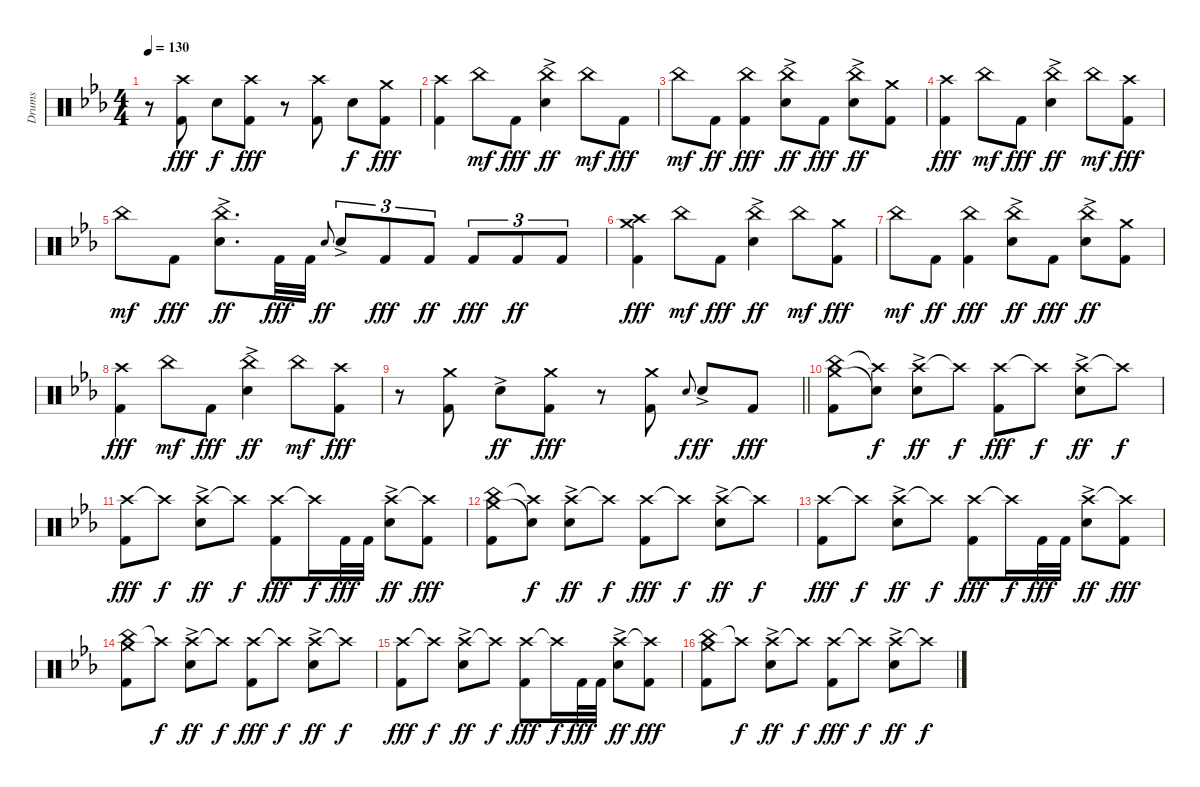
\track ("Drums" "Drums") {instrument percussion}
\staff {score}
\articulation defaults
\ts (4 4)
\tempo 130
\clef neutral
\ks cminor
r.8{dy fff} ("Crash high (hit)" "Kick (hit) 2").8 "Electric Snare (hit)".8{dy f} ("Crash high (hit)" "Kick (hit) 2").8{dy fff} r.8 ("Crash high (hit)" "Kick (hit) 2").8 "Electric Snare (hit)".8{dy f} ("Crash medium (hit)" "Kick (hit) 2").8{dy fff} |
("Crash high (hit)" "Kick (hit) 2").4 "China (hit)".8{dy mf} "Kick (hit) 2".8{dy fff} ("China (hit)" "Electric Snare (hit)"{ac}).4{dy ff} "China (hit)".8{dy mf} "Kick (hit) 2".8{dy fff} |
"China (hit)".8{dy mf} "Kick (hit) 2".8{dy ff} ("China (hit)" "Kick (hit) 2").4{dy fff} ("China (hit)" "Electric Snare (hit)"{ac}).8{dy ff} "Kick (hit) 2".8{dy fff} ("China (hit)" "Electric Snare (hit)"{ac}).8{dy ff} ("Crash medium (hit)" "Kick (hit) 2").8 |
("Crash high (hit)" "Kick (hit) 2").4{dy fff} "China (hit)".8{dy mf} "Kick (hit) 2".8{dy fff} ("China (hit)" "Electric Snare (hit)"{ac}).4{dy ff} "China (hit)".8{dy mf} ("Crash high (hit)" "Kick (hit) 2").8{dy fff} |
"China (hit)".8{dy mf} "Kick (hit) 2".8{dy fff} ("China (hit)" "Electric Snare (hit)"{ac}).8{d dy ff} "Kick (hit) 2".32{dy fff} "Kick (hit) 2".32 "Electric Snare (hit)".8{gr onbeat dy ff} "Electric Snare (hit)"{ac}.8{tu (3 2)} "Kick (hit) 2".8{tu (3 2) dy fff} "Kick (hit) 2".8{tu (3 2) dy ff} "Kick (hit) 2".8{tu (3 2) dy fff} "Kick (hit) 2".8{tu (3 2) dy ff} "Kick (hit) 2".8{tu (3 2)} |
("Crash high (hit)" "Crash medium (hit)" "Kick (hit) 2").4{dy fff} "China (hit)".8{dy mf} "Kick (hit) 2".8{dy fff} ("China (hit)" "Electric Snare (hit)"{ac}).4{dy ff} "China (hit)".8{dy mf} ("Crash medium (hit)" "Kick (hit) 2").8{dy fff} |
"China (hit)".8{dy mf} "Kick (hit) 2".8{dy ff} ("China (hit)" "Kick (hit) 2").4{dy fff} ("China (hit)" "Electric Snare (hit)"{ac}).8{dy ff} "Kick (hit) 2".8{dy fff} ("China (hit)" "Electric Snare (hit)"{ac}).8{dy ff} ("Crash medium (hit)" "Kick (hit) 2").8 |
("Crash high (hit)" "Kick (hit) 2").4{dy fff} "China (hit)".8{dy mf} "Kick (hit) 2".8{dy fff} ("China (hit)" "Electric Snare (hit)"{ac}).4{dy ff} "China (hit)".8{dy mf} ("Crash high (hit)" "Kick (hit) 2").8{dy fff} |
\barLineRight lightlight
r.8 ("Crash medium (hit)" "Kick (hit) 2").8 "Electric Snare (hit)"{ac}.8{dy ff} ("Crash medium (hit)" "Kick (hit) 2").8{dy fff} r.8 ("Crash medium (hit)" "Kick (hit) 2").8 "Electric Snare (hit)".8{gr onbeat dy f} "Electric Snare (hit)"{ac}.8{dy ff} "Kick (hit) 2".8{dy fff} |
("China (hit)" "Crash medium (hit)" "Kick (hit) 2").8 ("Crash high (hit)"{t} "Snare (hit)"{t}).8{dy f} ("Crash high (hit)" "Electric Snare (hit)"{ac}).8{dy ff} "Crash high (hit)"{t}.8{dy f} ("Crash high (hit)" "Kick (hit) 2").8{dy fff} "Crash high (hit)"{t}.8{dy f} ("Crash high (hit)" "Electric Snare (hit)"{ac}).8{dy ff} "Crash high (hit)"{t}.8{dy f} |
("Crash high (hit)" "Kick (hit) 2").8{dy fff} "Crash high (hit)"{t}.8{dy f} ("Crash high (hit)" "Electric Snare (hit)"{ac}).8{dy ff} "Crash high (hit)"{t}.8{dy f} ("Crash high (hit)" "Kick (hit) 2").8{dy fff} "Crash high (hit)"{t}.16{dy f} "Kick (hit) 2".32{dy fff} "Kick (hit) 2".32 ("Crash high (hit)" "Electric Snare (hit)"{ac}).8{dy ff} ("Crash high (hit)"{t} "Kick (hit) 2").8{dy fff} |
("China (hit)" "Crash medium (hit)" "Kick (hit) 2").8 ("Crash high (hit)"{t} "Snare (hit)"{t}).8{dy f} ("Crash high (hit)" "Electric Snare (hit)"{ac}).8{dy ff} "Crash high (hit)"{t}.8{dy f} ("Crash high (hit)" "Kick (hit) 2").8{dy fff} "Crash high (hit)"{t}.8{dy f} ("Crash high (hit)" "Electric Snare (hit)"{ac}).8{dy ff} "Crash high (hit)"{t}.8{dy f} |
("Crash high (hit)" "Kick (hit) 2").8{dy fff} "Crash high (hit)"{t}.8{dy f} ("Crash high (hit)" "Electric Snare (hit)"{ac}).8{dy ff} "Crash high (hit)"{t}.8{dy f} ("Crash high (hit)" "Kick (hit) 2").8{dy fff} "Crash high (hit)"{t}.16{dy f} "Kick (hit) 2".32{dy fff} "Kick (hit) 2".32 ("Crash high (hit)" "Electric Snare (hit)"{ac}).8{dy ff} ("Crash high (hit)"{t} "Kick (hit) 2").8{dy fff} |
("China (hit)" "Crash medium (hit)" "Kick (hit) 2").8 "Crash high (hit)"{t}.8{dy f} ("Crash high (hit)" "Electric Snare (hit)"{ac}).8{dy ff} "Crash high (hit)"{t}.8{dy f} ("Crash high (hit)" "Kick (hit) 2").8{dy fff} "Crash high (hit)"{t}.8{dy f} ("Crash high (hit)" "Electric Snare (hit)"{ac}).8{dy ff} "Crash high (hit)"{t}.8{dy f} |
("Crash high (hit)" "Kick (hit) 2").8{dy fff} "Crash high (hit)"{t}.8{dy f} ("Crash high (hit)" "Electric Snare (hit)"{ac}).8{dy ff} "Crash high (hit)"{t}.8{dy f} ("Crash high (hit)" "Kick (hit) 2").8{dy fff} "Crash high (hit)"{t}.16{dy f} "Kick (hit) 2".32{dy fff} "Kick (hit) 2".32 ("Crash high (hit)" "Electric Snare (hit)"{ac}).8{dy ff} ("Crash high (hit)"{t} "Kick (hit) 2").8{dy fff} |
("China (hit)" "Crash medium (hit)" "Kick (hit) 2").8 "Crash high (hit)"{t}.8{dy f} ("Crash high (hit)" "Electric Snare (hit)"{ac}).8{dy ff} "Crash high (hit)"{t}.8{dy f} ("Crash high (hit)" "Kick (hit) 2").8{dy fff} "Crash high (hit)"{t}.8{dy f} ("Crash high (hit)" "Electric Snare (hit)"{ac}).8{dy ff} "Crash high (hit)"{t}.8{dy f}
